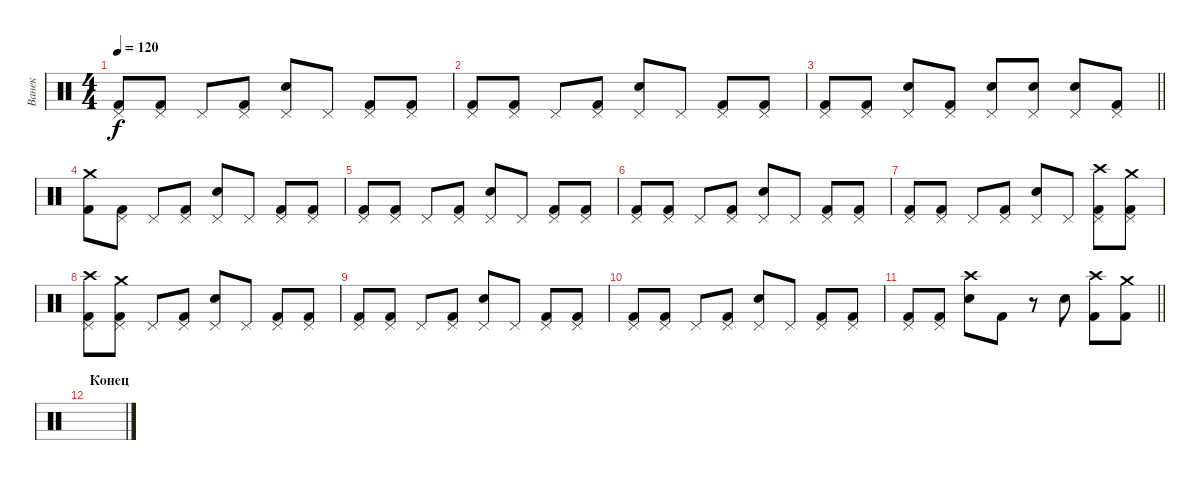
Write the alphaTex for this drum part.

\track ("Ванек" "Ванек") {instrument percussion}
\staff {score}
\articulation defaults
\ts (4 4)
\tempo 120
\clef neutral
\ks c
("Kick (hit) 2" "Pedal Hi-Hat (hit)").8{dy f} ("Kick (hit) 2" "Pedal Hi-Hat (hit)").8 "Pedal Hi-Hat (hit)".8 ("Kick (hit) 2" "Pedal Hi-Hat (hit)").8 ("Electric Snare (hit)" "Pedal Hi-Hat (hit)").8 "Pedal Hi-Hat (hit)".8 ("Kick (hit) 2" "Pedal Hi-Hat (hit)").8 ("Kick (hit) 2" "Pedal Hi-Hat (hit)").8 |
("Kick (hit) 2" "Pedal Hi-Hat (hit)").8 ("Kick (hit) 2" "Pedal Hi-Hat (hit)").8 "Pedal Hi-Hat (hit)".8 ("Kick (hit) 2" "Pedal Hi-Hat (hit)").8 ("Electric Snare (hit)" "Pedal Hi-Hat (hit)").8 "Pedal Hi-Hat (hit)".8 ("Kick (hit) 2" "Pedal Hi-Hat (hit)").8 ("Kick (hit) 2" "Pedal Hi-Hat (hit)").8 |
\barLineRight lightlight
("Kick (hit) 2" "Pedal Hi-Hat (hit)").8 ("Kick (hit) 2" "Pedal Hi-Hat (hit)").8 ("Electric Snare (hit)" "Pedal Hi-Hat (hit)").8 ("Kick (hit) 2" "Pedal Hi-Hat (hit)").8 ("Electric Snare (hit)" "Pedal Hi-Hat (hit)").8 ("Electric Snare (hit)" "Pedal Hi-Hat (hit)").8 ("Electric Snare (hit)" "Pedal Hi-Hat (hit)").8 ("Kick (hit) 2" "Pedal Hi-Hat (hit)").8 |
("Kick (hit) 2" "Crash medium (hit)").8 ("Kick (hit) 2" "Pedal Hi-Hat (hit)").8 "Pedal Hi-Hat (hit)".8 ("Kick (hit) 2" "Pedal Hi-Hat (hit)").8 ("Electric Snare (hit)" "Pedal Hi-Hat (hit)").8 "Pedal Hi-Hat (hit)".8 ("Kick (hit) 2" "Pedal Hi-Hat (hit)").8 ("Kick (hit) 2" "Pedal Hi-Hat (hit)").8 |
("Kick (hit) 2" "Pedal Hi-Hat (hit)").8 ("Kick (hit) 2" "Pedal Hi-Hat (hit)").8 "Pedal Hi-Hat (hit)".8 ("Kick (hit) 2" "Pedal Hi-Hat (hit)").8 ("Electric Snare (hit)" "Pedal Hi-Hat (hit)").8 "Pedal Hi-Hat (hit)".8 ("Kick (hit) 2" "Pedal Hi-Hat (hit)").8 ("Kick (hit) 2" "Pedal Hi-Hat (hit)").8 |
("Kick (hit) 2" "Pedal Hi-Hat (hit)").8 ("Kick (hit) 2" "Pedal Hi-Hat (hit)").8 "Pedal Hi-Hat (hit)".8 ("Kick (hit) 2" "Pedal Hi-Hat (hit)").8 ("Electric Snare (hit)" "Pedal Hi-Hat (hit)").8 "Pedal Hi-Hat (hit)".8 ("Kick (hit) 2" "Pedal Hi-Hat (hit)").8 ("Kick (hit) 2" "Pedal Hi-Hat (hit)").8 |
("Kick (hit) 2" "Pedal Hi-Hat (hit)").8 ("Kick (hit) 2" "Pedal Hi-Hat (hit)").8 "Pedal Hi-Hat (hit)".8 ("Kick (hit) 2" "Pedal Hi-Hat (hit)").8 ("Electric Snare (hit)" "Pedal Hi-Hat (hit)").8 "Pedal Hi-Hat (hit)".8 ("Kick (hit) 2" "Crash high (hit)" "Pedal Hi-Hat (hit)").8 ("Kick (hit) 2" "Crash medium (hit)" "Pedal Hi-Hat (hit)").8 |
("Kick (hit) 2" "Crash high (hit)" "Pedal Hi-Hat (hit)").8 ("Kick (hit) 2" "Crash medium (hit)" "Pedal Hi-Hat (hit)").8 "Pedal Hi-Hat (hit)".8 ("Kick (hit) 2" "Pedal Hi-Hat (hit)").8 ("Electric Snare (hit)" "Pedal Hi-Hat (hit)").8 "Pedal Hi-Hat (hit)".8 ("Kick (hit) 2" "Pedal Hi-Hat (hit)").8 ("Kick (hit) 2" "Pedal Hi-Hat (hit)").8 |
("Kick (hit) 2" "Pedal Hi-Hat (hit)").8 ("Kick (hit) 2" "Pedal Hi-Hat (hit)").8 "Pedal Hi-Hat (hit)".8 ("Kick (hit) 2" "Pedal Hi-Hat (hit)").8 ("Electric Snare (hit)" "Pedal Hi-Hat (hit)").8 "Pedal Hi-Hat (hit)".8 ("Kick (hit) 2" "Pedal Hi-Hat (hit)").8 ("Kick (hit) 2" "Pedal Hi-Hat (hit)").8 |
("Kick (hit) 2" "Pedal Hi-Hat (hit)").8 ("Kick (hit) 2" "Pedal Hi-Hat (hit)").8 "Pedal Hi-Hat (hit)".8 ("Kick (hit) 2" "Pedal Hi-Hat (hit)").8 ("Electric Snare (hit)" "Pedal Hi-Hat (hit)").8 "Pedal Hi-Hat (hit)".8 ("Kick (hit) 2" "Pedal Hi-Hat (hit)").8 ("Kick (hit) 2" "Pedal Hi-Hat (hit)").8 |
\barLineRight lightlight
("Kick (hit) 2" "Pedal Hi-Hat (hit)").8 ("Kick (hit) 2" "Pedal Hi-Hat (hit)").8 ("Crash high (hit)" "Electric Snare (hit)").8 "Kick (hit) 2".8 r.8 "Electric Snare (hit)".8 ("Kick (hit) 2" "Crash high (hit)").8 ("Kick (hit) 2" "Crash medium (hit)").8 |
\section ("" "Конец")
